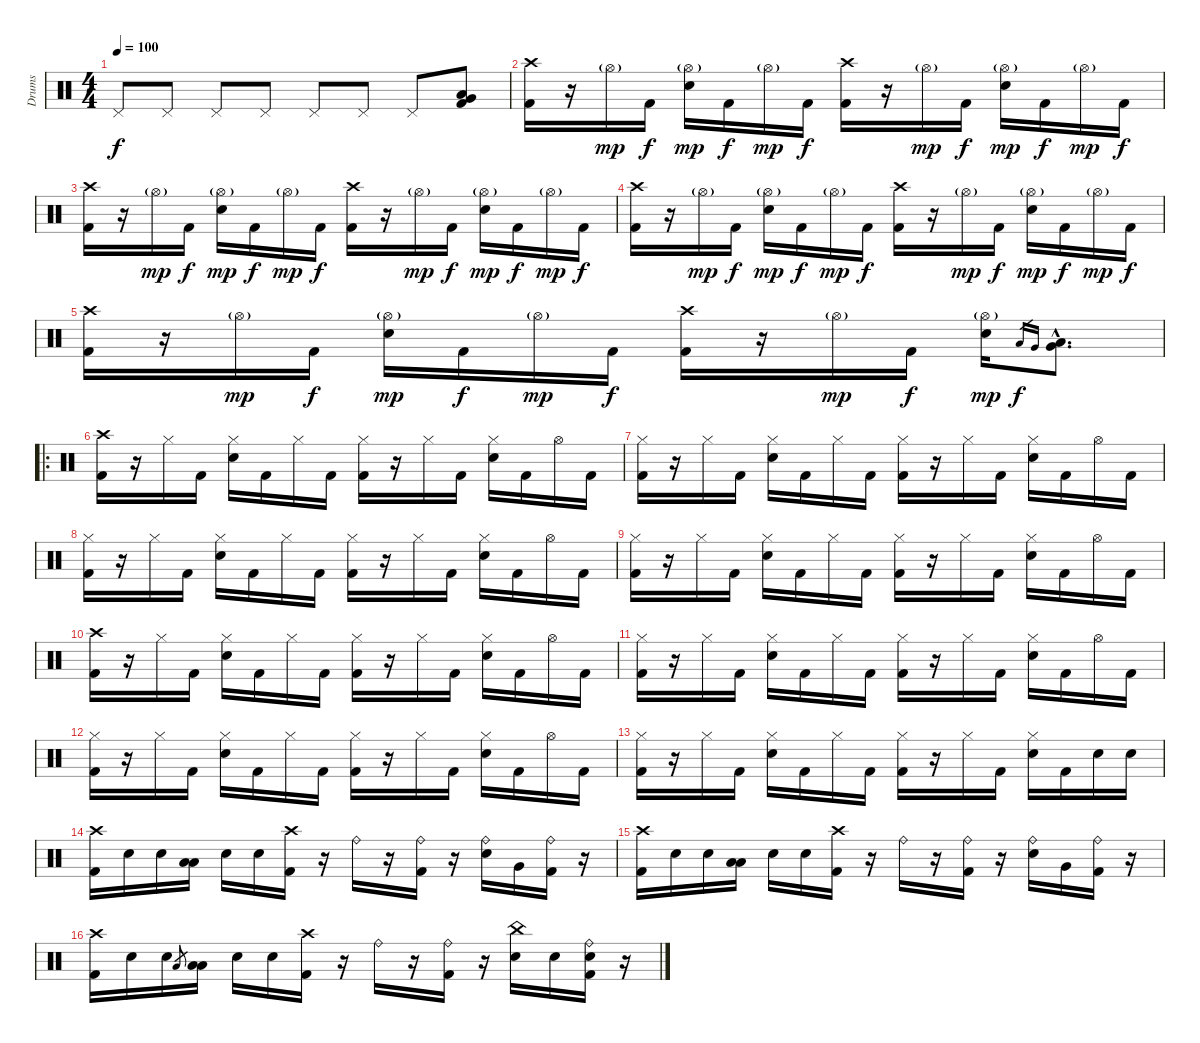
\track ("Drums" "Drums") {instrument percussion}
\staff {score}
\articulation defaults
\ts (4 4)
\tempo 100
\clef neutral
\ks c "Pedal Hi-Hat (hit)".8{dy f} "Pedal Hi-Hat (hit)".8 "Pedal Hi-Hat (hit)".8 "Pedal Hi-Hat (hit)".8 "Pedal Hi-Hat (hit)".8 "Pedal Hi-Hat (hit)".8 "Pedal Hi-Hat (hit)".8
("Low Floor Tom (hit)" "Very Low Tom (hit)" "Kick (hit) 2").8 |
("Crash high (hit)" "Kick (hit) 2").16 r.16 "Hi-Hat (open)"{g}.16{dy mp} "Kick (hit) 2".16{dy f} ("Hi-Hat (open)"{g} "Electric Snare (hit)").16{dy mp} "Kick (hit) 2".16{dy f} "Hi-Hat (open)"{g}.16{dy mp} "Kick (hit) 2".16{dy f} ("Crash high (hit)" "Kick (hit) 2").16 r.16 "Hi-Hat (open)"{g}.16{dy mp} "Kick (hit) 2".16{dy f} ("Hi-Hat (open)"{g} "Electric Snare (hit)").16{dy mp} "Kick (hit) 2".16{dy f} "Hi-Hat (open)"{g}.16{dy mp} "Kick (hit) 2".16{dy f} |
("Crash high (hit)" "Kick (hit) 2").16 r.16 "Hi-Hat (open)"{g}.16{dy mp} "Kick (hit) 2".16{dy f} ("Hi-Hat (open)"{g} "Electric Snare (hit)").16{dy mp} "Kick (hit) 2".16{dy f} "Hi-Hat (open)"{g}.16{dy mp} "Kick (hit) 2".16{dy f} ("Crash high (hit)" "Kick (hit) 2").16 r.16 "Hi-Hat (open)"{g}.16{dy mp} "Kick (hit) 2".16{dy f} ("Hi-Hat (open)"{g} "Electric Snare (hit)").16{dy mp} "Kick (hit) 2".16{dy f} "Hi-Hat (open)"{g}.16{dy mp} "Kick (hit) 2".16{dy f} |
("Crash high (hit)" "Kick (hit) 2").16 r.16 "Hi-Hat (open)"{g}.16{dy mp} "Kick (hit) 2".16{dy f} ("Hi-Hat (open)"{g} "Electric Snare (hit)").16{dy mp} "Kick (hit) 2".16{dy f} "Hi-Hat (open)"{g}.16{dy mp} "Kick (hit) 2".16{dy f} ("Crash high (hit)" "Kick (hit) 2").16 r.16 "Hi-Hat (open)"{g}.16{dy mp} "Kick (hit) 2".16{dy f} ("Hi-Hat (open)"{g} "Electric Snare (hit)").16{dy mp} "Kick (hit) 2".16{dy f} "Hi-Hat (open)"{g}.16{dy mp} "Kick (hit) 2".16{dy f} |
("Crash high (hit)" "Kick (hit) 2").16 r.16 "Hi-Hat (open)"{g}.16{dy mp} "Kick (hit) 2".16{dy f} ("Hi-Hat (open)"{g} "Electric Snare (hit)").16{dy mp} "Kick (hit) 2".16{dy f} "Hi-Hat (open)"{g}.16{dy mp} "Kick (hit) 2".16{dy f} ("Crash high (hit)" "Kick (hit) 2").16 r.16 "Hi-Hat (open)"{g}.16{dy mp} "Kick (hit) 2".16{dy f} ("Hi-Hat (open)"{g} "Electric Snare (hit)").16{dy mp} "Low Tom (hit)".16{gr dy f} "Very Low Tom (hit)".16{gr} ("Low Tom (hit)"{hac} "Very Low Tom (hit)"{hac}).8{d} |
\ro
("Crash high (hit)" "Kick (hit) 2").16 r.16 "Hi-Hat (closed)".16 "Kick (hit) 2".16 ("Hi-Hat (closed)" "Electric Snare (hit)").16 "Kick (hit) 2".16 "Hi-Hat (closed)".16 "Kick (hit) 2".16 ("Hi-Hat (closed)" "Kick (hit) 2").16 r.16 "Hi-Hat (closed)".16 "Kick (hit) 2".16 ("Hi-Hat (closed)" "Electric Snare (hit)").16 "Kick (hit) 2".16 "Hi-Hat (open)".16 "Kick (hit) 2".16 |
("Hi-Hat (closed)" "Kick (hit) 2").16 r.16 "Hi-Hat (closed)".16 "Kick (hit) 2".16 ("Hi-Hat (closed)" "Electric Snare (hit)").16 "Kick (hit) 2".16 "Hi-Hat (closed)".16 "Kick (hit) 2".16 ("Hi-Hat (closed)" "Kick (hit) 2").16 r.16 "Hi-Hat (closed)".16 "Kick (hit) 2".16 ("Hi-Hat (closed)" "Electric Snare (hit)").16 "Kick (hit) 2".16 "Hi-Hat (open)".16 "Kick (hit) 2".16 |
("Hi-Hat (closed)" "Kick (hit) 2").16 r.16 "Hi-Hat (closed)".16 "Kick (hit) 2".16 ("Hi-Hat (closed)" "Electric Snare (hit)").16 "Kick (hit) 2".16 "Hi-Hat (closed)".16 "Kick (hit) 2".16 ("Hi-Hat (closed)" "Kick (hit) 2").16 r.16 "Hi-Hat (closed)".16 "Kick (hit) 2".16 ("Hi-Hat (closed)" "Electric Snare (hit)").16 "Kick (hit) 2".16 "Hi-Hat (open)".16 "Kick (hit) 2".16 |
("Hi-Hat (closed)" "Kick (hit) 2").16 r.16 "Hi-Hat (closed)".16 "Kick (hit) 2".16 ("Hi-Hat (closed)" "Electric Snare (hit)").16 "Kick (hit) 2".16 "Hi-Hat (closed)".16 "Kick (hit) 2".16 ("Hi-Hat (closed)" "Kick (hit) 2").16 r.16 "Hi-Hat (closed)".16 "Kick (hit) 2".16 ("Hi-Hat (closed)" "Electric Snare (hit)").16 "Kick (hit) 2".16 "Hi-Hat (open)".16 "Kick (hit) 2".16 |
("Crash high (hit)" "Kick (hit) 2").16 r.16 "Hi-Hat (closed)".16 "Kick (hit) 2".16 ("Hi-Hat (closed)" "Electric Snare (hit)").16 "Kick (hit) 2".16 "Hi-Hat (closed)".16 "Kick (hit) 2".16 ("Hi-Hat (closed)" "Kick (hit) 2").16 r.16 "Hi-Hat (closed)".16 "Kick (hit) 2".16 ("Hi-Hat (closed)" "Electric Snare (hit)").16 "Kick (hit) 2".16 "Hi-Hat (open)".16 "Kick (hit) 2".16 |
("Hi-Hat (closed)" "Kick (hit) 2").16 r.16 "Hi-Hat (closed)".16 "Kick (hit) 2".16 ("Hi-Hat (closed)" "Electric Snare (hit)").16 "Kick (hit) 2".16 "Hi-Hat (closed)".16 "Kick (hit) 2".16 ("Hi-Hat (closed)" "Kick (hit) 2").16 r.16 "Hi-Hat (closed)".16 "Kick (hit) 2".16 ("Hi-Hat (closed)" "Electric Snare (hit)").16 "Kick (hit) 2".16 "Hi-Hat (open)".16 "Kick (hit) 2".16 |
("Hi-Hat (closed)" "Kick (hit) 2").16 r.16 "Hi-Hat (closed)".16 "Kick (hit) 2".16 ("Hi-Hat (closed)" "Electric Snare (hit)").16 "Kick (hit) 2".16 "Hi-Hat (closed)".16 "Kick (hit) 2".16 ("Hi-Hat (closed)" "Kick (hit) 2").16 r.16 "Hi-Hat (closed)".16 "Kick (hit) 2".16 ("Hi-Hat (closed)" "Electric Snare (hit)").16 "Kick (hit) 2".16 "Hi-Hat (open)".16 "Kick (hit) 2".16 |
("Hi-Hat (closed)" "Kick (hit) 2").16 r.16 "Hi-Hat (closed)".16 "Kick (hit) 2".16 ("Hi-Hat (closed)" "Electric Snare (hit)").16 "Kick (hit) 2".16 "Hi-Hat (closed)".16 "Kick (hit) 2".16 ("Hi-Hat (closed)" "Kick (hit) 2").16 r.16 "Hi-Hat (closed)".16 "Kick (hit) 2".16 ("Hi-Hat (closed)" "Electric Snare (hit)").16 "Kick (hit) 2".16 "Electric Snare (hit)".16 "Electric Snare (hit)".16 |
("Crash high (hit)" "Kick (hit) 2").16 "Electric Snare (hit)".16 "Electric Snare (hit)".16 ("Low Tom (hit)" "Low Tom (hit)").16 "Electric Snare (hit)".16 "Electric Snare (hit)".16 ("Crash high (hit)" "Kick (hit) 2").16 r.16 "Ride (bell)".16 r.16 ("Ride (bell)" "Kick (hit) 2").16 r.16 ("Ride (bell)" "Electric Snare (hit)").16 "Very Low Tom (hit)".16 ("Ride (bell)" "Kick (hit) 2").16 r.16 |
("Crash high (hit)" "Kick (hit) 2").16 "Electric Snare (hit)".16 "Electric Snare (hit)".16 ("Low Tom (hit)" "Low Tom (hit)").16 "Electric Snare (hit)".16 "Electric Snare (hit)".16 ("Crash high (hit)" "Kick (hit) 2").16 r.16 "Ride (bell)".16 r.16 ("Ride (bell)" "Kick (hit) 2").16 r.16 ("Ride (bell)" "Electric Snare (hit)").16 "Very Low Tom (hit)".16 ("Ride (bell)" "Kick (hit) 2").16 r.16 |
("Crash high (hit)" "Kick (hit) 2").16 "Electric Snare (hit)".16 "Electric Snare (hit)".16 "Low Tom (hit)".8{gr} ("Low Tom (hit)" "Low Tom (hit)").16 "Electric Snare (hit)".16 "Electric Snare (hit)".16 ("Crash high (hit)" "Kick (hit) 2").16 r.16 "Ride (bell)".16 r.16 ("Ride (bell)" "Kick (hit) 2").16 r.16 ("China (hit)" "Electric Snare (hit)").16 "Electric Snare (hit)".16 ("Ride (bell)" "Electric Snare (hit)" "Kick (hit) 2").16 r.16
